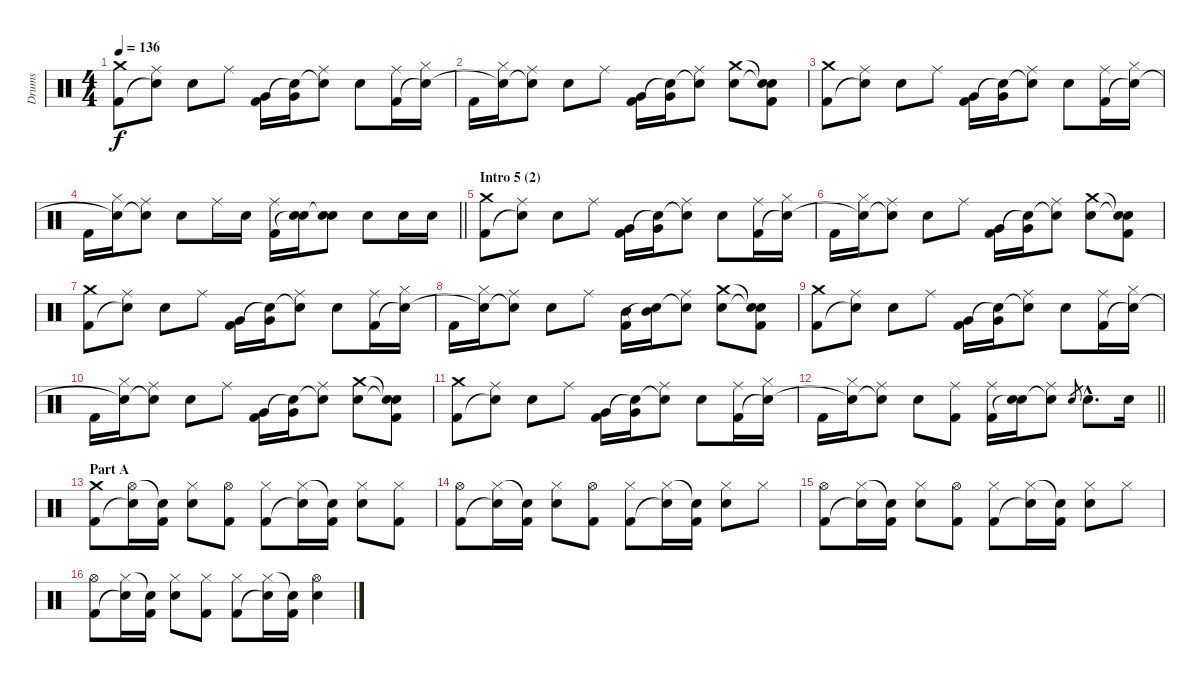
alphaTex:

\track ("Drums" "Drums") {instrument percussion}
\staff {score}
\articulation defaults
\ts (4 4)
\tempo 136
\clef neutral
\ks c
("Crash medium (hit)" "Kick (hit) 2").8{dy f} ("Ride (middle)" "Snare (hit)"{t}).8 "Electric Snare (hit)".8 "Ride (middle)".8 ("Very Low Tom (hit)" "Kick (hit) 2").16 ("Very Low Tom (hit)" "Snare (hit)"{t}).16 ("Ride (middle)" "Snare (hit)"{t}).8 "Electric Snare (hit)".8 ("Ride (middle)" "Kick (hit) 2").16 ("Hi-Hat (closed)" "Snare (hit)"{t}).16 |
"Kick (hit) 2".16 ("Hi-Hat (closed)" "Snare (hit)"{t}).16 ("Ride (middle)" "Snare (hit)"{t}).8 "Electric Snare (hit)".8 "Ride (middle)".8 ("Very Low Tom (hit)" "Kick (hit) 2").16 ("Very Low Tom (hit)" "Snare (hit)"{t}).16 ("Ride (middle)" "Snare (hit)"{t}).8 ("Crash medium (hit)" "Electric Snare (hit)").8 ("Snare (hit)"{t} "Snare (hit)"{t} "Kick (hit) 2").8 |
("Crash medium (hit)" "Kick (hit) 2").8 ("Ride (middle)" "Snare (hit)"{t}).8 "Electric Snare (hit)".8 "Ride (middle)".8 ("Very Low Tom (hit)" "Kick (hit) 2").16 ("Very Low Tom (hit)" "Snare (hit)"{t}).16 ("Ride (middle)" "Snare (hit)"{t}).8 "Electric Snare (hit)".8 ("Ride (middle)" "Kick (hit) 2").16 ("Hi-Hat (closed)" "Snare (hit)"{t}).16 |
\barLineRight lightlight "Kick (hit) 2".16
("Hi-Hat (closed)" "Snare (hit)"{t}).16 ("Ride (middle)" "Snare (hit)"{t}).8 "Electric Snare (hit)".8 "Ride (middle)".16 "Electric Snare (hit)".16 ("Ride (middle)" "Kick (hit) 2").16 ("Electric Snare (hit)" "Snare (hit)"{t}).16 ("Electric Snare (hit)" "Snare (hit)"{t}).8 "Electric Snare (hit)".8 "Electric Snare (hit)".16 "Electric Snare (hit)".16 |
\section ("" "Intro 5 (2)")
("Crash medium (hit)" "Kick (hit) 2").8 ("Ride (middle)" "Snare (hit)"{t}).8 "Electric Snare (hit)".8 "Ride (middle)".8 ("Very Low Tom (hit)" "Kick (hit) 2").16 ("Very Low Tom (hit)" "Snare (hit)"{t}).16 ("Ride (middle)" "Snare (hit)"{t}).8 "Electric Snare (hit)".8 ("Ride (middle)" "Kick (hit) 2").16 ("Hi-Hat (closed)" "Snare (hit)"{t}).16 |
"Kick (hit) 2".16 ("Hi-Hat (closed)" "Snare (hit)"{t}).16 ("Ride (middle)" "Snare (hit)"{t}).8 "Electric Snare (hit)".8 "Ride (middle)".8 ("Very Low Tom (hit)" "Kick (hit) 2").16 ("Very Low Tom (hit)" "Snare (hit)"{t}).16 ("Ride (middle)" "Snare (hit)"{t}).8 ("Crash medium (hit)" "Electric Snare (hit)").8 ("Snare (hit)"{t} "Snare (hit)"{t} "Kick (hit) 2").8 |
("Crash medium (hit)" "Kick (hit) 2").8 ("Ride (middle)" "Snare (hit)"{t}).8 "Electric Snare (hit)".8 "Ride (middle)".8 ("Very Low Tom (hit)" "Kick (hit) 2").16 ("Very Low Tom (hit)" "Snare (hit)"{t}).16 ("Ride (middle)" "Snare (hit)"{t}).8 "Electric Snare (hit)".8 ("Ride (middle)" "Kick (hit) 2").16 ("Hi-Hat (closed)" "Snare (hit)"{t}).16 |
"Kick (hit) 2".16 ("Hi-Hat (closed)" "Snare (hit)"{t}).16 ("Ride (middle)" "Snare (hit)"{t}).8 "Electric Snare (hit)".8 "Ride (middle)".8 ("Mid Tom (hit)" "Kick (hit) 2").16 ("Mid Tom (hit)" "Snare (hit)"{t}).16 ("Ride (middle)" "Snare (hit)"{t}).8 ("Crash medium (hit)" "Electric Snare (hit)").8 ("Snare (hit)"{t} "Snare (hit)"{t} "Kick (hit) 2").8 |
("Crash medium (hit)" "Kick (hit) 2").8 ("Ride (middle)" "Snare (hit)"{t}).8 "Electric Snare (hit)".8 "Ride (middle)".8 ("Very Low Tom (hit)" "Kick (hit) 2").16 ("Very Low Tom (hit)" "Snare (hit)"{t}).16 ("Ride (middle)" "Snare (hit)"{t}).8 "Electric Snare (hit)".8 ("Ride (middle)" "Kick (hit) 2").16 ("Hi-Hat (closed)" "Snare (hit)"{t}).16 |
"Kick (hit) 2".16 ("Hi-Hat (closed)" "Snare (hit)"{t}).16 ("Ride (middle)" "Snare (hit)"{t}).8 "Electric Snare (hit)".8 "Ride (middle)".8 ("Very Low Tom (hit)" "Kick (hit) 2").16 ("Very Low Tom (hit)" "Snare (hit)"{t}).16 ("Ride (middle)" "Snare (hit)"{t}).8 ("Crash medium (hit)" "Electric Snare (hit)").8 ("Snare (hit)"{t} "Snare (hit)"{t} "Kick (hit) 2").8 |
("Crash medium (hit)" "Kick (hit) 2").8 ("Ride (middle)" "Snare (hit)"{t}).8 "Electric Snare (hit)".8 "Ride (middle)".8 ("Very Low Tom (hit)" "Kick (hit) 2").16 ("Very Low Tom (hit)" "Snare (hit)"{t}).16 ("Ride (middle)" "Snare (hit)"{t}).8 "Electric Snare (hit)".8 ("Ride (middle)" "Kick (hit) 2").16 ("Hi-Hat (closed)" "Snare (hit)"{t}).16 |
\barLineRight lightlight "Kick (hit) 2".16
("Hi-Hat (closed)" "Snare (hit)"{t}).16 ("Ride (middle)" "Snare (hit)"{t}).8 "Electric Snare (hit)".8 ("Ride (middle)" "Kick (hit) 2").8 ("Ride (middle)" "Kick (hit) 2").16 ("Electric Snare (hit)" "Snare (hit)"{t}).16 ("Ride (middle)" "Snare (hit)"{t}).8 "Electric Snare (hit)".8{gr} "Electric Snare (hit)"{hac}.8{d} "Electric Snare (hit)".16 |
\section ("" "Part A")
("Crash medium (hit)" "Kick (hit) 2").8 ("Hi-Hat (open)" "Snare (hit)"{t}).16 ("Snare (hit)"{t} "Kick (hit) 2").16 ("Hi-Hat (closed)" "Electric Snare (hit)").8 ("Hi-Hat (open)" "Kick (hit) 2").8 ("Hi-Hat (closed)" "Kick (hit) 2").8 ("Hi-Hat (closed)" "Snare (hit)"{t}).16 ("Snare (hit)"{t} "Kick (hit) 2").16 ("Hi-Hat (closed)" "Electric Snare (hit)").8 ("Hi-Hat (closed)" "Kick (hit) 2").8 |
("Hi-Hat (open)" "Kick (hit) 2").8 ("Hi-Hat (closed)" "Snare (hit)"{t}).16 ("Snare (hit)"{t} "Kick (hit) 2").16 ("Hi-Hat (closed)" "Electric Snare (hit)").8 ("Hi-Hat (open)" "Kick (hit) 2").8 ("Hi-Hat (closed)" "Kick (hit) 2").8 ("Hi-Hat (closed)" "Snare (hit)"{t}).16 ("Snare (hit)"{t} "Kick (hit) 2").16 ("Hi-Hat (closed)" "Electric Snare (hit)").8 "Hi-Hat (closed)".8 |
("Hi-Hat (open)" "Kick (hit) 2").8 ("Hi-Hat (closed)" "Snare (hit)"{t}).16 ("Snare (hit)"{t} "Kick (hit) 2").16 ("Hi-Hat (closed)" "Electric Snare (hit)").8 ("Hi-Hat (open)" "Kick (hit) 2").8 ("Hi-Hat (closed)" "Kick (hit) 2").8 ("Hi-Hat (closed)" "Snare (hit)"{t}).16 ("Snare (hit)"{t} "Kick (hit) 2").16 ("Hi-Hat (closed)" "Electric Snare (hit)").8 "Hi-Hat (closed)".8 |
("Hi-Hat (open)" "Kick (hit) 2").8 ("Hi-Hat (closed)" "Snare (hit)"{t}).16 ("Snare (hit)"{t} "Kick (hit) 2").16 ("Hi-Hat (closed)" "Electric Snare (hit)").8 ("Hi-Hat (closed)" "Kick (hit) 2").8 ("Hi-Hat (closed)" "Kick (hit) 2").8 ("Hi-Hat (closed)" "Snare (hit)"{t}).16 ("Snare (hit)"{t} "Kick (hit) 2").16 ("Hi-Hat (open)" "Electric Snare (hit)").4
